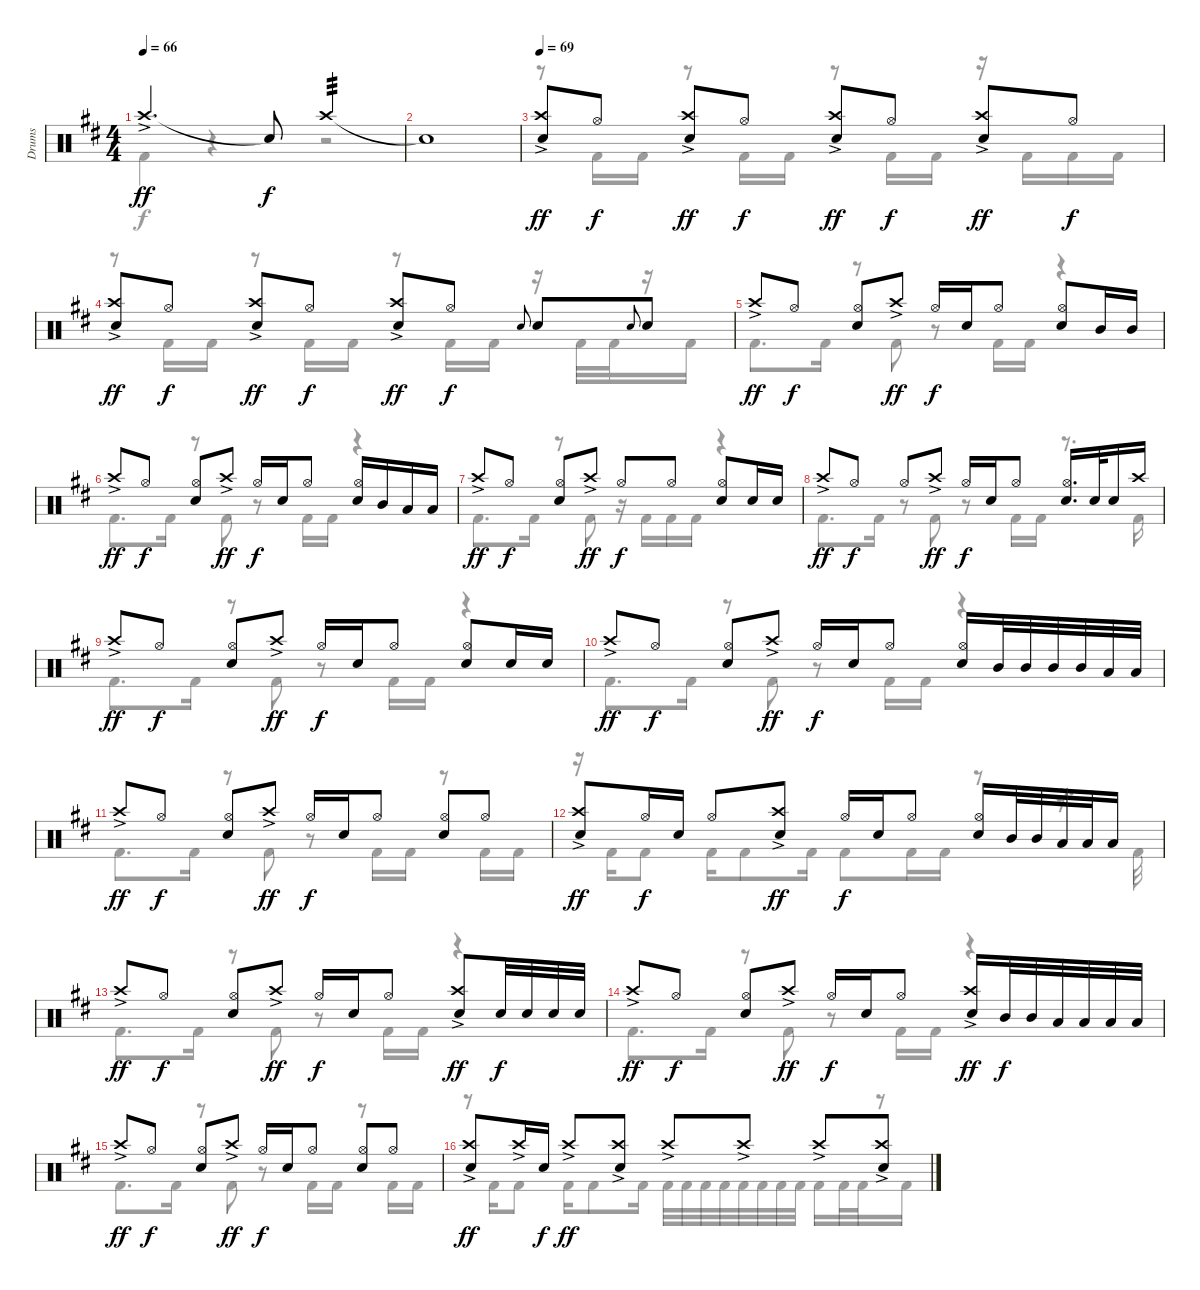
\track ("Drums" "Drums") {instrument percussion}
\staff {score}
\articulation defaults
\voice
\ts (4 4)
\tempo 66
\clef neutral
\ks d "Crash high (hit)"{ac}.4{d dy ff} "Snare (hit)"{t}.8{dy f volume 0} "Crash high (hit)".2{tp 3 volume 13}
|
"Snare (hit)"{t}.1 |
\tempo 69
("Crash high (hit)"{ac} "Electric Snare (hit)").8{dy ff} "Hi-Hat (open)".8{dy f} ("Crash high (hit)"{ac} "Electric Snare (hit)").8{dy ff} "Hi-Hat (open)".8{dy f} ("Crash high (hit)"{ac} "Electric Snare (hit)").8{dy ff} "Hi-Hat (open)".8{dy f} ("Crash high (hit)"{ac} "Electric Snare (hit)").8{dy ff} "Hi-Hat (open)".8{dy f} |
("Crash high (hit)"{ac} "Electric Snare (hit)").8{dy ff} "Hi-Hat (open)".8{dy f} ("Crash high (hit)"{ac} "Electric Snare (hit)").8{dy ff} "Hi-Hat (open)".8{dy f} ("Crash high (hit)"{ac} "Electric Snare (hit)").8{dy ff} "Hi-Hat (open)".8{dy f} "Electric Snare (hit)".8{gr onbeat} "Electric Snare (hit)".8 "Electric Snare (hit)".8{gr onbeat} "Electric Snare (hit)".8 |
"Crash high (hit)"{ac}.8{dy ff} "Hi-Hat (open)".8{dy f} ("Hi-Hat (open)" "Electric Snare (hit)").8 "Crash high (hit)"{ac}.8{dy ff} "Hi-Hat (open)".16{dy f} "Electric Snare (hit)".16 "Hi-Hat (open)".8 ("Hi-Hat (open)" "Electric Snare (hit)").8 "Mid Tom (hit)".16 "Mid Tom (hit)".16 |
"Crash high (hit)"{ac}.8{dy ff} "Hi-Hat (open)".8{dy f} ("Hi-Hat (open)" "Electric Snare (hit)").8 "Crash high (hit)"{ac}.8{dy ff} "Hi-Hat (open)".16{dy f} "Electric Snare (hit)".16 "Hi-Hat (open)".8 ("Hi-Hat (open)" "Electric Snare (hit)").16 "Mid Tom (hit)".16 "Low Tom (hit)".16 "Low Tom (hit)".16 |
"Crash high (hit)"{ac}.8{dy ff} "Hi-Hat (open)".8{dy f} ("Hi-Hat (open)" "Electric Snare (hit)").8 "Crash high (hit)"{ac}.8{dy ff} "Hi-Hat (open)".8{dy f} "Hi-Hat (open)".8 ("Hi-Hat (open)" "Electric Snare (hit)").8 "Electric Snare (hit)".16 "Electric Snare (hit)".16 |
"Crash high (hit)"{ac}.8{dy ff} "Hi-Hat (open)".8{dy f} "Hi-Hat (open)".8 "Crash high (hit)"{ac}.8{dy ff} "Hi-Hat (open)".16{dy f} "Electric Snare (hit)".16 "Hi-Hat (open)".8 ("Hi-Hat (open)" "Electric Snare (hit)").16{d} "Electric Snare (hit)".32 "Electric Snare (hit)".16 "Crash high (hit)".16 |
"Crash high (hit)"{ac}.8{dy ff} "Hi-Hat (open)".8{dy f} ("Hi-Hat (open)" "Electric Snare (hit)").8 "Crash high (hit)"{ac}.8{dy ff} "Hi-Hat (open)".16{dy f} "Electric Snare (hit)".16 "Hi-Hat (open)".8 ("Hi-Hat (open)" "Electric Snare (hit)").8 "Electric Snare (hit)".16 "Electric Snare (hit)".16 |
"Crash high (hit)"{ac}.8{dy ff} "Hi-Hat (open)".8{dy f} ("Hi-Hat (open)" "Electric Snare (hit)").8 "Crash high (hit)"{ac}.8{dy ff} "Hi-Hat (open)".16{dy f} "Electric Snare (hit)".16 "Hi-Hat (open)".8 ("Hi-Hat (open)" "Electric Snare (hit)").16 "Mid Tom (hit)".32 "Mid Tom (hit)".32 "Mid Tom (hit)".32 "Mid Tom (hit)".32 "Low Tom (hit)".32 "Low Tom (hit)".32 |
"Crash high (hit)"{ac}.8{dy ff} "Hi-Hat (open)".8{dy f} ("Hi-Hat (open)" "Electric Snare (hit)").8 "Crash high (hit)"{ac}.8{dy ff} "Hi-Hat (open)".16{dy f} "Electric Snare (hit)".16 "Hi-Hat (open)".8 ("Hi-Hat (open)" "Electric Snare (hit)").8 "Hi-Hat (open)".8 |
("Crash high (hit)"{ac} "Electric Snare (hit)").8{dy ff} "Hi-Hat (open)".16{dy f} "Electric Snare (hit)".16 "Hi-Hat (open)".8 ("Crash high (hit)"{ac} "Electric Snare (hit)").8{dy ff} "Hi-Hat (open)".16{dy f} "Electric Snare (hit)".16 "Hi-Hat (open)".8 ("Hi-Hat (open)" "Electric Snare (hit)").16 "Mid Tom (hit)".32 "Mid Tom (hit)".32 "Low Tom (hit)".32 "Low Tom (hit)".32 "Low Tom (hit)".16 |
"Crash high (hit)"{ac}.8{dy ff} "Hi-Hat (open)".8{dy f} ("Hi-Hat (open)" "Electric Snare (hit)").8 "Crash high (hit)"{ac}.8{dy ff} "Hi-Hat (open)".16{dy f} "Electric Snare (hit)".16 "Hi-Hat (open)".8 ("Crash high (hit)"{ac} "Electric Snare (hit)").8{dy ff} "Electric Snare (hit)".32{dy f} "Electric Snare (hit)".32 "Electric Snare (hit)".32 "Electric Snare (hit)".32 |
"Crash high (hit)"{ac}.8{dy ff} "Hi-Hat (open)".8{dy f} ("Hi-Hat (open)" "Electric Snare (hit)").8 "Crash high (hit)"{ac}.8{dy ff} "Hi-Hat (open)".16{dy f} "Electric Snare (hit)".16 "Hi-Hat (open)".8 ("Crash high (hit)"{ac} "Electric Snare (hit)").16{dy ff} "Mid Tom (hit)".32{dy f} "Mid Tom (hit)".32 "Low Tom (hit)".32 "Low Tom (hit)".32 "Low Tom (hit)".32 "Low Tom (hit)".32 |
"Crash high (hit)"{ac}.8{dy ff} "Hi-Hat (open)".8{dy f} ("Hi-Hat (open)" "Electric Snare (hit)").8 "Crash high (hit)"{ac}.8{dy ff} "Hi-Hat (open)".16{dy f} "Electric Snare (hit)".16 "Hi-Hat (open)".8 ("Hi-Hat (open)" "Electric Snare (hit)").8 "Hi-Hat (open)".8 |
("Crash high (hit)"{ac} "Electric Snare (hit)").8{dy ff} "Crash high (hit)"{ac}.16 "Electric Snare (hit)".16{dy f} "Crash high (hit)"{ac}.8{dy ff} ("Crash high (hit)"{ac} "Electric Snare (hit)").8 "Crash high (hit)"{ac}.8 "Crash high (hit)"{ac}.8 "Crash high (hit)"{ac}.8 ("Crash high (hit)"{ac} "Electric Snare (hit)").8
\voice
\clef neutral
\ottava regular
\simile none
\ks d "Kick (hit) 2".4{dy f}
r.4 r.2 |
|
r.8 "Kick (hit) 2".16 "Kick (hit) 2".16 r.8 "Kick (hit) 2".16 "Kick (hit) 2".16 r.8 "Kick (hit) 2".16 "Kick (hit) 2".16 r.16 "Kick (hit) 2".16 "Kick (hit) 2".16 "Kick (hit) 2".16 |
r.8 "Kick (hit) 2".16 "Kick (hit) 2".16 r.8 "Kick (hit) 2".16 "Kick (hit) 2".16 r.8 "Kick (hit) 2".16 "Kick (hit) 2".16 r.16 "Kick (hit) 2".32 "Kick (hit) 2".32 r.16 "Kick (hit) 2".16 |
"Kick (hit) 2".8{d} "Kick (hit) 2".16 r.8 "Kick (hit) 2".8 r.8 "Kick (hit) 2".16 "Kick (hit) 2".16 r.4 |
"Kick (hit) 2".8{d} "Kick (hit) 2".16 r.8 "Kick (hit) 2".8 r.8 "Kick (hit) 2".16 "Kick (hit) 2".16 r.4 |
"Kick (hit) 2".8{d} "Kick (hit) 2".16 r.8 "Kick (hit) 2".8 r.16 "Kick (hit) 2".16 "Kick (hit) 2".16 "Kick (hit) 2".16 r.4 |
"Kick (hit) 2".8{d} "Kick (hit) 2".16 r.8 "Kick (hit) 2".8 r.8 "Kick (hit) 2".16 "Kick (hit) 2".16 r.8{d} "Kick (hit) 2".16 |
"Kick (hit) 2".8{d} "Kick (hit) 2".16 r.8 "Kick (hit) 2".8 r.8 "Kick (hit) 2".16 "Kick (hit) 2".16 r.4 |
"Kick (hit) 2".8{d} "Kick (hit) 2".16 r.8 "Kick (hit) 2".8 r.8 "Kick (hit) 2".16 "Kick (hit) 2".16 r.4 |
"Kick (hit) 2".8{d} "Kick (hit) 2".16 r.8 "Kick (hit) 2".8 r.8 "Kick (hit) 2".16 "Kick (hit) 2".16 r.8 "Kick (hit) 2".16 "Kick (hit) 2".16 |
r.16 "Kick (hit) 2".16 "Kick (hit) 2".8 "Kick (hit) 2".16 "Kick (hit) 2".8 "Kick (hit) 2".16 "Kick (hit) 2".8 "Kick (hit) 2".16 "Kick (hit) 2".16 r.8 r.16{d} "Kick (hit) 2".32 |
"Kick (hit) 2".8{d} "Kick (hit) 2".16 r.8 "Kick (hit) 2".8 r.8 "Kick (hit) 2".16 "Kick (hit) 2".16 r.4 |
"Kick (hit) 2".8{d} "Kick (hit) 2".16 r.8 "Kick (hit) 2".8 r.8 "Kick (hit) 2".16 "Kick (hit) 2".16 r.4 |
"Kick (hit) 2".8{d} "Kick (hit) 2".16 r.8 "Kick (hit) 2".8 r.8 "Kick (hit) 2".16 "Kick (hit) 2".16 r.8 "Kick (hit) 2".16 "Kick (hit) 2".16 |
r.16 "Kick (hit) 2".16 "Kick (hit) 2".8 "Kick (hit) 2".16 "Kick (hit) 2".8 "Kick (hit) 2".16 "Kick (hit) 2".32 "Kick (hit) 2".32 "Kick (hit) 2".32 "Kick (hit) 2".32 "Kick (hit) 2".32 "Kick (hit) 2".32 "Kick (hit) 2".32 "Kick (hit) 2".32 "Kick (hit) 2".16 "Kick (hit) 2".32 "Kick (hit) 2".32 r.16 "Kick (hit) 2".16
